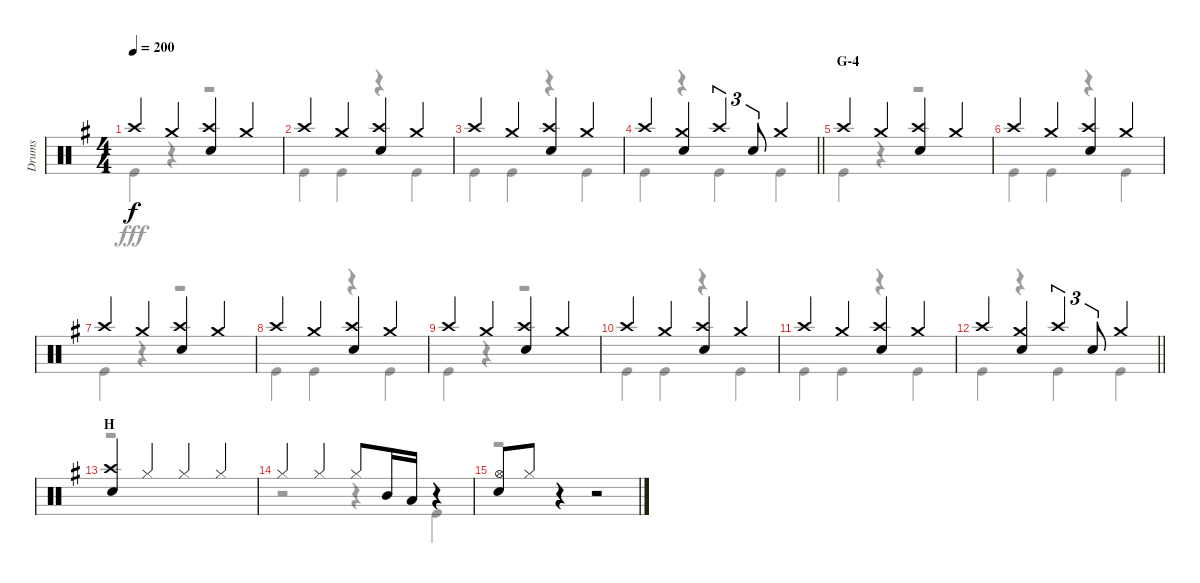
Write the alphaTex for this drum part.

\track ("Drums" "Drums") {instrument percussion}
\staff {score}
\articulation defaults
\voice
\ts (4 4)
\tempo 200
\clef neutral
\ks g "Crash high (hit)".4{dy f} "Crash medium (hit)".4
("Crash high (hit)" "Snare (hit) 2").4 "Crash medium (hit)".4 |
"Crash high (hit)".4 "Crash medium (hit)".4 ("Crash high (hit)" "Snare (hit) 2").4 "Crash medium (hit)".4 |
"Crash high (hit)".4 "Crash medium (hit)".4 ("Crash high (hit)" "Snare (hit) 2").4 "Crash medium (hit)".4 |
\barLineRight lightlight "Crash high (hit)".4
("Crash medium (hit)" "Snare (hit) 2").4 "Crash high (hit)".4{tu (3 2)} "Snare (hit) 2".8{tu (3 2)} "Crash medium (hit)".4 |
\section ("" "G-4")
"Crash high (hit)".4 "Crash medium (hit)".4 ("Crash high (hit)" "Snare (hit) 2").4 "Crash medium (hit)".4 |
"Crash high (hit)".4 "Crash medium (hit)".4 ("Crash high (hit)" "Snare (hit) 2").4 "Crash medium (hit)".4 |
"Crash high (hit)".4 "Crash medium (hit)".4 ("Crash high (hit)" "Snare (hit) 2").4 "Crash medium (hit)".4 |
"Crash high (hit)".4 "Crash medium (hit)".4 ("Crash high (hit)" "Snare (hit) 2").4 "Crash medium (hit)".4 |
"Crash high (hit)".4 "Crash medium (hit)".4 ("Crash high (hit)" "Snare (hit) 2").4 "Crash medium (hit)".4 |
"Crash high (hit)".4 "Crash medium (hit)".4 ("Crash high (hit)" "Snare (hit) 2").4 "Crash medium (hit)".4 |
"Crash high (hit)".4 "Crash medium (hit)".4 ("Crash high (hit)" "Snare (hit) 2").4 "Crash medium (hit)".4 |
\barLineRight lightlight "Crash high (hit)".4
("Crash medium (hit)" "Snare (hit) 2").4 "Crash high (hit)".4{tu (3 2)} "Snare (hit) 2".8{tu (3 2)} "Crash medium (hit)".4 |
\section ("" "H")
("Crash high (hit)" "Snare (hit) 2").4 "Hi-Hat (closed)".4 "Hi-Hat (closed)".4 "Hi-Hat (closed)".4 |
"Hi-Hat (closed)".4 "Hi-Hat (closed)".4 "Hi-Hat (closed)".8 "Mid Tom (hit)".16 "Low Tom (hit)".16 r.4 |
("Hi-Hat (open)" "Snare (hit) 2").8 "Hi-Hat (closed)".8 r.4 r.2
\voice
\clef neutral
\ottava regular
\simile none
\ks g "Kick (hit)".4{dy fff}
r.4 r.2 |
"Kick (hit)".4 "Kick (hit)".4 r.4 "Kick (hit)".4 |
"Kick (hit)".4 "Kick (hit)".4 r.4 "Kick (hit)".4 |
\barLineRight lightlight "Kick (hit)".4
r.4 "Kick (hit)".4 "Kick (hit)".4 |
"Kick (hit)".4 r.4 r.2 |
"Kick (hit)".4 "Kick (hit)".4 r.4 "Kick (hit)".4 |
"Kick (hit)".4 r.4 r.2 |
"Kick (hit)".4 "Kick (hit)".4 r.4 "Kick (hit)".4 |
"Kick (hit)".4 r.4 r.2 |
"Kick (hit)".4 "Kick (hit)".4 r.4 "Kick (hit)".4 |
"Kick (hit)".4 "Kick (hit)".4 r.4 "Kick (hit)".4 |
\barLineRight lightlight "Kick (hit)".4
r.4 "Kick (hit)".4 "Kick (hit)".4 |
r.1 |
r.2 r.4 "Kick (hit)".4 |
r.1
